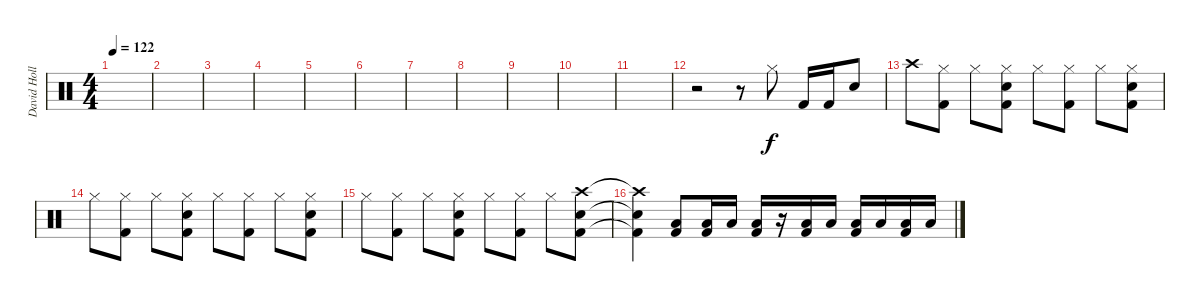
\track ("David Holland" "David Holl") {instrument percussion}
\staff {score}
\articulation defaults
\ts (4 4)
\tempo 122
\clef neutral
\ks c
|
|
|
|
|
|
|
|
|
|
|
r.2 r.8 "Hi-Hat (closed)".8 "Kick (hit) 2".16 "Kick (hit) 2".16 "Electric Snare (hit)".8 |
"Crash high (hit)".8 ("Kick (hit) 2" "Hi-Hat (closed)").8 "Hi-Hat (closed)".8 ("Electric Snare (hit)" "Kick (hit) 2" "Hi-Hat (closed)").8 "Hi-Hat (closed)".8 ("Kick (hit) 2" "Hi-Hat (closed)").8 "Hi-Hat (closed)".8 ("Electric Snare (hit)" "Kick (hit) 2" "Hi-Hat (closed)").8 |
"Hi-Hat (closed)".8 ("Kick (hit) 2" "Hi-Hat (closed)").8 "Hi-Hat (closed)".8 ("Electric Snare (hit)" "Kick (hit) 2" "Hi-Hat (closed)").8 "Hi-Hat (closed)".8 ("Kick (hit) 2" "Hi-Hat (closed)").8 "Hi-Hat (closed)".8 ("Electric Snare (hit)" "Kick (hit) 2" "Hi-Hat (closed)").8 |
"Hi-Hat (closed)".8 ("Kick (hit) 2" "Hi-Hat (closed)").8 "Hi-Hat (closed)".8 ("Electric Snare (hit)" "Kick (hit) 2" "Hi-Hat (closed)").8 "Hi-Hat (closed)".8 ("Kick (hit) 2" "Hi-Hat (closed)").8 "Hi-Hat (closed)".8 ("Electric Snare (hit)" "Kick (hit) 2" "Crash high (hit)").8 |
("Electric Snare (hit)"{t} "Kick (hit) 2"{t} "Crash high (hit)"{t}).4 ("Kick (hit) 2" "Low Tom (hit)").8 ("Kick (hit) 2" "Low Tom (hit)").16 "Low Tom (hit)".16 ("Kick (hit) 2" "Low Tom (hit)").16 r.16 ("Kick (hit) 2" "Low Tom (hit)").16 "Low Floor Tom (hit)".16 ("Kick (hit) 2" "Low Floor Tom (hit)").16 "Low Floor Tom (hit)".16 ("Kick (hit) 2" "Low Floor Tom (hit)").16 "Low Floor Tom (hit)".16
